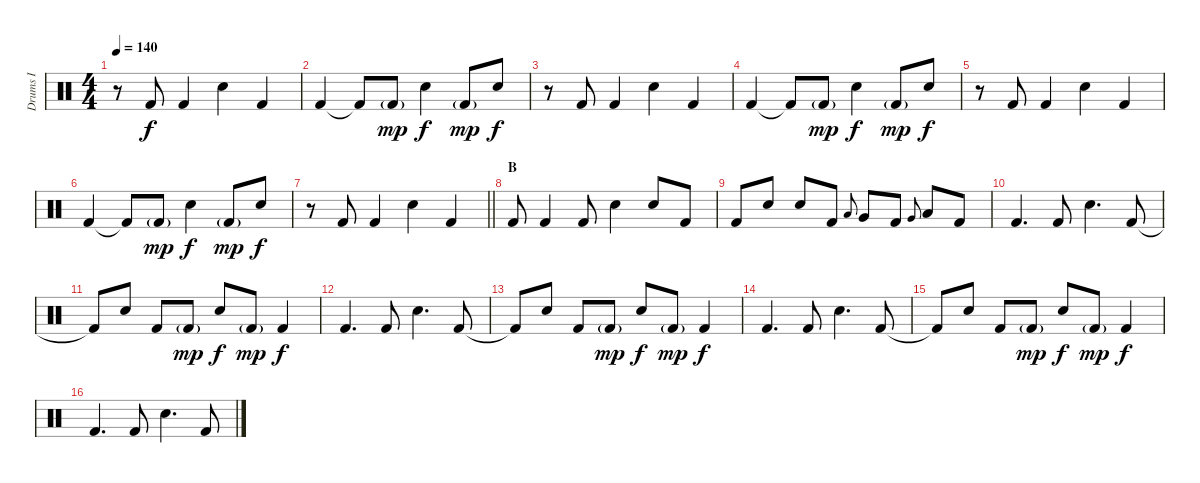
\track ("Drums I" "Drums I") {instrument percussion}
\staff {score}
\articulation defaults
\ts (4 4)
\tempo 140
\clef neutral
\ks c
r.8{dy f} "Kick (hit) 2".8 "Kick (hit) 2".4 "Electric Snare (hit)".4 "Kick (hit) 2".4 |
"Kick (hit) 2".4 "Kick (hit) 2"{t}.8 "Kick (hit) 2"{g}.8{dy mp} "Electric Snare (hit)".4{dy f} "Kick (hit) 2"{g}.8{dy mp} "Electric Snare (hit)".8{dy f} |
r.8 "Kick (hit) 2".8 "Kick (hit) 2".4 "Electric Snare (hit)".4 "Kick (hit) 2".4 |
"Kick (hit) 2".4 "Kick (hit) 2"{t}.8 "Kick (hit) 2"{g}.8{dy mp} "Electric Snare (hit)".4{dy f} "Kick (hit) 2"{g}.8{dy mp} "Electric Snare (hit)".8{dy f} |
r.8 "Kick (hit) 2".8 "Kick (hit) 2".4 "Electric Snare (hit)".4 "Kick (hit) 2".4 |
"Kick (hit) 2".4 "Kick (hit) 2"{t}.8 "Kick (hit) 2"{g}.8{dy mp} "Electric Snare (hit)".4{dy f} "Kick (hit) 2"{g}.8{dy mp} "Electric Snare (hit)".8{dy f} |
\barLineRight lightlight
r.8 "Kick (hit) 2".8 "Kick (hit) 2".4 "Electric Snare (hit)".4 "Kick (hit) 2".4 |
\section ("" "B")
"Kick (hit) 2".8 "Kick (hit) 2".4 "Kick (hit) 2".8 "Electric Snare (hit)".4 "Electric Snare (hit)".8 "Kick (hit) 2".8 |
"Kick (hit) 2".8 "Electric Snare (hit)".8 "Electric Snare (hit)".8 "Kick (hit) 2".8 "Low Tom (hit)".8{gr onbeat} "Very Low Tom (hit)".8 "Kick (hit) 2".8 "Very Low Tom (hit)".8{gr onbeat} "Low Floor Tom (hit)".8 "Kick (hit) 2".8 |
"Kick (hit) 2".4{d} "Kick (hit) 2".8 "Electric Snare (hit)".4{d} "Kick (hit) 2".8 |
"Kick (hit) 2"{t}.8 "Electric Snare (hit)".8 "Kick (hit) 2".8 "Kick (hit) 2"{g}.8{dy mp} "Electric Snare (hit)".8{dy f} "Kick (hit) 2"{g}.8{dy mp} "Kick (hit) 2".4{dy f} |
"Kick (hit) 2".4{d} "Kick (hit) 2".8 "Electric Snare (hit)".4{d} "Kick (hit) 2".8 |
"Kick (hit) 2"{t}.8 "Electric Snare (hit)".8 "Kick (hit) 2".8 "Kick (hit) 2"{g}.8{dy mp} "Electric Snare (hit)".8{dy f} "Kick (hit) 2"{g}.8{dy mp} "Kick (hit) 2".4{dy f} |
"Kick (hit) 2".4{d} "Kick (hit) 2".8 "Electric Snare (hit)".4{d} "Kick (hit) 2".8 |
"Kick (hit) 2"{t}.8 "Electric Snare (hit)".8 "Kick (hit) 2".8 "Kick (hit) 2"{g}.8{dy mp} "Electric Snare (hit)".8{dy f} "Kick (hit) 2"{g}.8{dy mp} "Kick (hit) 2".4{dy f} |
"Kick (hit) 2".4{d} "Kick (hit) 2".8 "Electric Snare (hit)".4{d} "Kick (hit) 2".8
